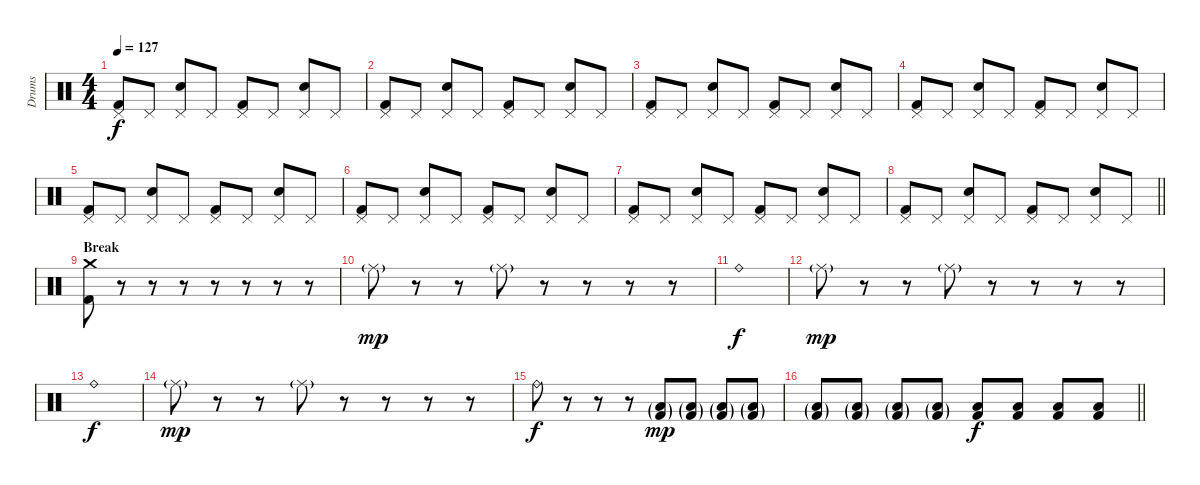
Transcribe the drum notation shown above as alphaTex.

\track ("Drums" "Drums") {instrument percussion}
\staff {score}
\articulation defaults
\ts (4 4)
\tempo 127
\clef neutral
\ks c
("Pedal Hi-Hat (hit)" "Kick (hit) 2").8{dy f} "Pedal Hi-Hat (hit)".8 ("Pedal Hi-Hat (hit)" "Electric Snare (hit)").8 "Pedal Hi-Hat (hit)".8 ("Pedal Hi-Hat (hit)" "Kick (hit) 2").8 "Pedal Hi-Hat (hit)".8 ("Pedal Hi-Hat (hit)" "Electric Snare (hit)").8 "Pedal Hi-Hat (hit)".8 |
("Pedal Hi-Hat (hit)" "Kick (hit) 2").8 "Pedal Hi-Hat (hit)".8 ("Pedal Hi-Hat (hit)" "Electric Snare (hit)").8 "Pedal Hi-Hat (hit)".8 ("Pedal Hi-Hat (hit)" "Kick (hit) 2").8 "Pedal Hi-Hat (hit)".8 ("Pedal Hi-Hat (hit)" "Electric Snare (hit)").8 "Pedal Hi-Hat (hit)".8 |
("Pedal Hi-Hat (hit)" "Kick (hit) 2").8 "Pedal Hi-Hat (hit)".8 ("Pedal Hi-Hat (hit)" "Electric Snare (hit)").8 "Pedal Hi-Hat (hit)".8 ("Pedal Hi-Hat (hit)" "Kick (hit) 2").8 "Pedal Hi-Hat (hit)".8 ("Pedal Hi-Hat (hit)" "Electric Snare (hit)").8 "Pedal Hi-Hat (hit)".8 |
("Pedal Hi-Hat (hit)" "Kick (hit) 2").8 "Pedal Hi-Hat (hit)".8 ("Pedal Hi-Hat (hit)" "Electric Snare (hit)").8 "Pedal Hi-Hat (hit)".8 ("Pedal Hi-Hat (hit)" "Kick (hit) 2").8 "Pedal Hi-Hat (hit)".8 ("Pedal Hi-Hat (hit)" "Electric Snare (hit)").8 "Pedal Hi-Hat (hit)".8 |
("Pedal Hi-Hat (hit)" "Kick (hit) 2").8 "Pedal Hi-Hat (hit)".8 ("Pedal Hi-Hat (hit)" "Electric Snare (hit)").8 "Pedal Hi-Hat (hit)".8 ("Pedal Hi-Hat (hit)" "Kick (hit) 2").8 "Pedal Hi-Hat (hit)".8 ("Pedal Hi-Hat (hit)" "Electric Snare (hit)").8 "Pedal Hi-Hat (hit)".8 |
("Pedal Hi-Hat (hit)" "Kick (hit) 2").8 "Pedal Hi-Hat (hit)".8 ("Pedal Hi-Hat (hit)" "Electric Snare (hit)").8 "Pedal Hi-Hat (hit)".8 ("Pedal Hi-Hat (hit)" "Kick (hit) 2").8 "Pedal Hi-Hat (hit)".8 ("Pedal Hi-Hat (hit)" "Electric Snare (hit)").8 "Pedal Hi-Hat (hit)".8 |
("Pedal Hi-Hat (hit)" "Kick (hit) 2").8 "Pedal Hi-Hat (hit)".8 ("Pedal Hi-Hat (hit)" "Electric Snare (hit)").8 "Pedal Hi-Hat (hit)".8 ("Pedal Hi-Hat (hit)" "Kick (hit) 2").8 "Pedal Hi-Hat (hit)".8 ("Pedal Hi-Hat (hit)" "Electric Snare (hit)").8 "Pedal Hi-Hat (hit)".8 |
\barLineRight lightlight
("Pedal Hi-Hat (hit)" "Kick (hit) 2").8 "Pedal Hi-Hat (hit)".8 ("Pedal Hi-Hat (hit)" "Electric Snare (hit)").8 "Pedal Hi-Hat (hit)".8 ("Pedal Hi-Hat (hit)" "Kick (hit) 2").8 "Pedal Hi-Hat (hit)".8 ("Pedal Hi-Hat (hit)" "Electric Snare (hit)").8 "Pedal Hi-Hat (hit)".8 |
\section ("" "Break")
("Crash medium (hit)" "Kick (hit) 2").8 r.8 r.8 r.8 r.8 r.8 r.8 r.8 |
"Ride (middle)"{g}.8{dy mp} r.8 r.8 "Ride (middle)"{g}.8 r.8 r.8 r.8 r.8 |
"Ride (bell)".1{dy f} |
"Ride (middle)"{g}.8{dy mp} r.8 r.8 "Ride (middle)"{g}.8 r.8 r.8 r.8 r.8 |
"Ride (bell)".1{dy f} |
"Ride (middle)"{g}.8{dy mp} r.8 r.8 "Ride (middle)"{g}.8 r.8 r.8 r.8 r.8 |
"Ride (bell)".8{dy f} r.8 r.8 r.8 ("Low Tom (hit)"{g} "Kick (hit) 2"{g}).8{dy mp} ("Low Tom (hit)"{g} "Kick (hit) 2"{g}).8 ("Low Tom (hit)"{g} "Kick (hit) 2"{g}).8 ("Low Tom (hit)"{g} "Kick (hit) 2"{g}).8 |
\barLineRight lightlight
("Low Tom (hit)"{g} "Kick (hit) 2"{g}).8 ("Low Tom (hit)"{g} "Kick (hit) 2"{g}).8 ("Low Tom (hit)"{g} "Kick (hit) 2"{g}).8 ("Low Tom (hit)"{g} "Kick (hit) 2"{g}).8 ("Low Tom (hit)" "Kick (hit) 2").8{dy f} ("Low Tom (hit)" "Kick (hit) 2").8 ("Low Tom (hit)" "Kick (hit) 2").8 ("Low Tom (hit)" "Kick (hit) 2").8
